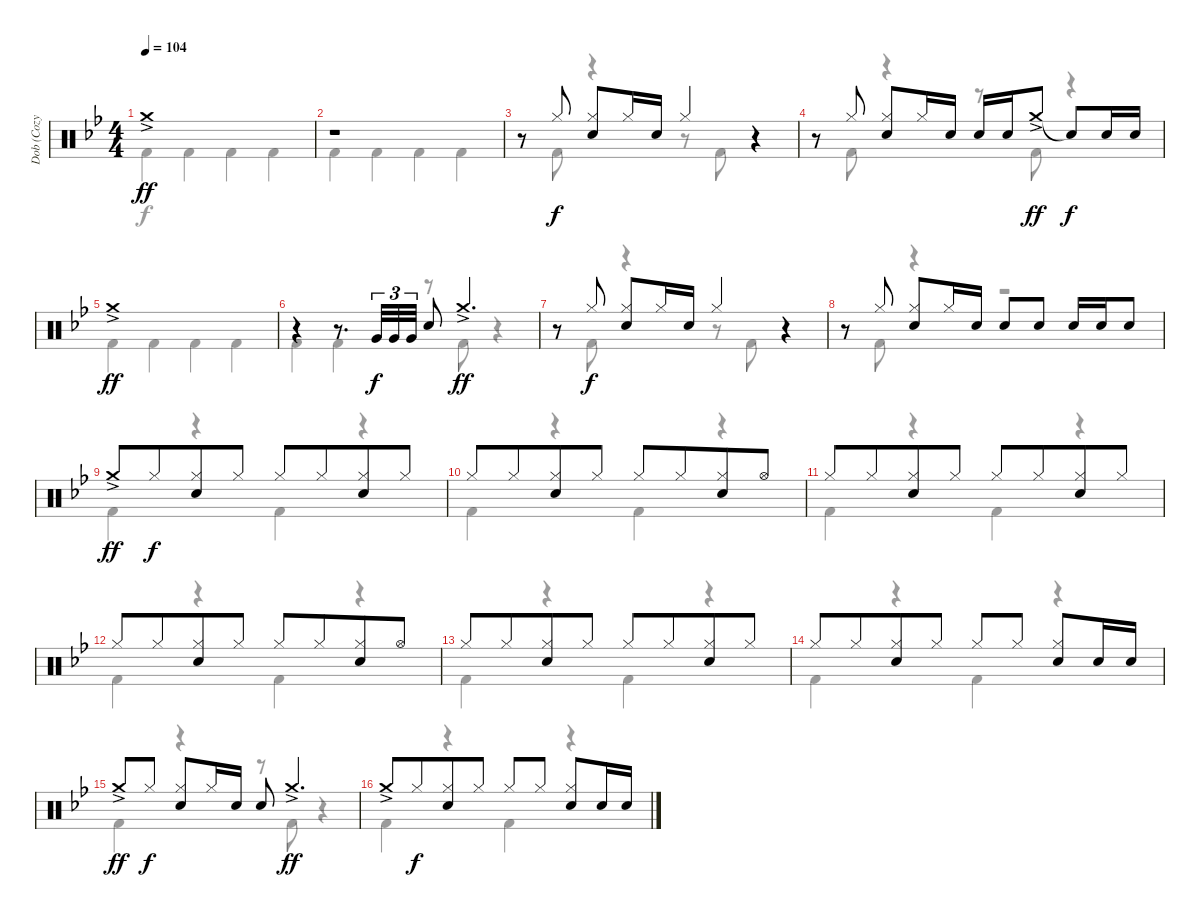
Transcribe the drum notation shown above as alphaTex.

\track ("Dob (Cozy Powell)" "Dob (Cozy ") {instrument percussion}
\staff {score}
\articulation defaults
\voice
\ts (4 4)
\tempo 104
\clef neutral
\ks bb "Crash medium (hit)"{ac}.1{dy ff}
|
r.1 |
r.8 "Hi-Hat (closed)".8{dy f} ("Hi-Hat (closed)" "Electric Snare (hit)").8 "Hi-Hat (closed)".16 "Electric Snare (hit)".16 "Hi-Hat (closed)".4 r.4 |
r.8 "Hi-Hat (closed)".8 ("Hi-Hat (closed)" "Electric Snare (hit)").8 "Hi-Hat (closed)".16 "Electric Snare (hit)".16 "Electric Snare (hit)".16 "Electric Snare (hit)".16 "Crash medium (hit)"{ac}.8{dy ff} "Snare (hit)"{t}.8{dy f} "Electric Snare (hit)".16 "Electric Snare (hit)".16 |
"Crash medium (hit)"{ac}.1{dy ff} |
r.4 r.8{d} "Very Low Tom (hit)".32{tu (3 2) dy f} "Very Low Tom (hit)".32{tu (3 2)} "Very Low Tom (hit)".32{tu (3 2)} "Electric Snare (hit)".8 "Crash medium (hit)"{ac}.4{d dy ff} |
r.8 "Hi-Hat (closed)".8{dy f} ("Hi-Hat (closed)" "Electric Snare (hit)").8 "Hi-Hat (closed)".16 "Electric Snare (hit)".16 "Hi-Hat (closed)".4 r.4 |
r.8 "Hi-Hat (closed)".8 ("Hi-Hat (closed)" "Electric Snare (hit)").8 "Hi-Hat (closed)".16 "Electric Snare (hit)".16 "Electric Snare (hit)".8 "Electric Snare (hit)".8 "Electric Snare (hit)".16 "Electric Snare (hit)".16 "Electric Snare (hit)".8 |
"Crash medium (hit)"{ac}.8{dy ff} "Hi-Hat (closed)".8{dy f beam merge} ("Hi-Hat (closed)" "Electric Snare (hit)").8 "Hi-Hat (closed)".8 "Hi-Hat (closed)".8 "Hi-Hat (closed)".8{beam merge} ("Hi-Hat (closed)" "Electric Snare (hit)").8 "Hi-Hat (closed)".8 |
"Hi-Hat (closed)".8 "Hi-Hat (closed)".8{beam merge} ("Hi-Hat (closed)" "Electric Snare (hit)").8 "Hi-Hat (closed)".8 "Hi-Hat (closed)".8 "Hi-Hat (closed)".8{beam merge} ("Hi-Hat (closed)" "Electric Snare (hit)").8 "Hi-Hat (open)".8 |
"Hi-Hat (closed)".8 "Hi-Hat (closed)".8{beam merge} ("Hi-Hat (closed)" "Electric Snare (hit)").8 "Hi-Hat (closed)".8 "Hi-Hat (closed)".8 "Hi-Hat (closed)".8{beam merge} ("Hi-Hat (closed)" "Electric Snare (hit)").8 "Hi-Hat (closed)".8 |
"Hi-Hat (closed)".8 "Hi-Hat (closed)".8{beam merge} ("Hi-Hat (closed)" "Electric Snare (hit)").8 "Hi-Hat (closed)".8 "Hi-Hat (closed)".8 "Hi-Hat (closed)".8{beam merge} ("Hi-Hat (closed)" "Electric Snare (hit)").8 "Hi-Hat (open)".8 |
"Hi-Hat (closed)".8 "Hi-Hat (closed)".8{beam merge} ("Hi-Hat (closed)" "Electric Snare (hit)").8 "Hi-Hat (closed)".8 "Hi-Hat (closed)".8 "Hi-Hat (closed)".8{beam merge} ("Hi-Hat (closed)" "Electric Snare (hit)").8 "Hi-Hat (closed)".8 |
"Hi-Hat (closed)".8 "Hi-Hat (closed)".8{beam merge} ("Hi-Hat (closed)" "Electric Snare (hit)").8 "Hi-Hat (closed)".8 "Hi-Hat (closed)".8 "Hi-Hat (closed)".8 ("Hi-Hat (closed)" "Electric Snare (hit)").8 "Electric Snare (hit)".16 "Electric Snare (hit)".16 |
"Crash medium (hit)"{ac}.8{dy ff} "Hi-Hat (closed)".8{dy f} ("Hi-Hat (closed)" "Electric Snare (hit)").8 "Hi-Hat (closed)".16 "Electric Snare (hit)".16 "Electric Snare (hit)".8 "Crash medium (hit)"{ac}.4{d dy ff} |
"Crash medium (hit)"{ac}.8 "Hi-Hat (closed)".8{dy f beam merge} ("Hi-Hat (closed)" "Electric Snare (hit)").8 "Hi-Hat (closed)".8 "Hi-Hat (closed)".8 "Hi-Hat (closed)".8 ("Hi-Hat (closed)" "Electric Snare (hit)").8 "Electric Snare (hit)".16 "Electric Snare (hit)".16
\voice
\clef neutral
\ottava regular
\simile none
\ks bb "Kick (hit) 2".4{dy f} "Kick (hit) 2".4 "Kick (hit) 2".4 "Kick (hit) 2".4
|
"Kick (hit) 2".4 "Kick (hit) 2".4 "Kick (hit) 2".4 "Kick (hit) 2".4 |
r.8 "Kick (hit) 2".8 r.4 r.8 "Kick (hit) 2".8 r.4 |
r.8 "Kick (hit) 2".8 r.4 r.8 "Kick (hit) 2".8 r.4 |
"Kick (hit) 2".4 "Kick (hit) 2".4 "Kick (hit) 2".4 "Kick (hit) 2".4 |
"Kick (hit) 2".4 "Kick (hit) 2".4 r.8 "Kick (hit) 2".8 r.4 |
r.8 "Kick (hit) 2".8 r.4 r.8 "Kick (hit) 2".8 r.4 |
r.8 "Kick (hit) 2".8 r.4 r.2 |
"Kick (hit) 2".4 r.4 "Kick (hit) 2".4 r.4 |
"Kick (hit) 2".4 r.4 "Kick (hit) 2".4 r.4 |
"Kick (hit) 2".4 r.4 "Kick (hit) 2".4 r.4 |
"Kick (hit) 2".4 r.4 "Kick (hit) 2".4 r.4 |
"Kick (hit) 2".4 r.4 "Kick (hit) 2".4 r.4 |
"Kick (hit) 2".4 r.4 "Kick (hit) 2".4 r.4 |
"Kick (hit) 2".4 r.4 r.8 "Kick (hit) 2".8 r.4 |
"Kick (hit) 2".4 r.4 "Kick (hit) 2".4 r.4
